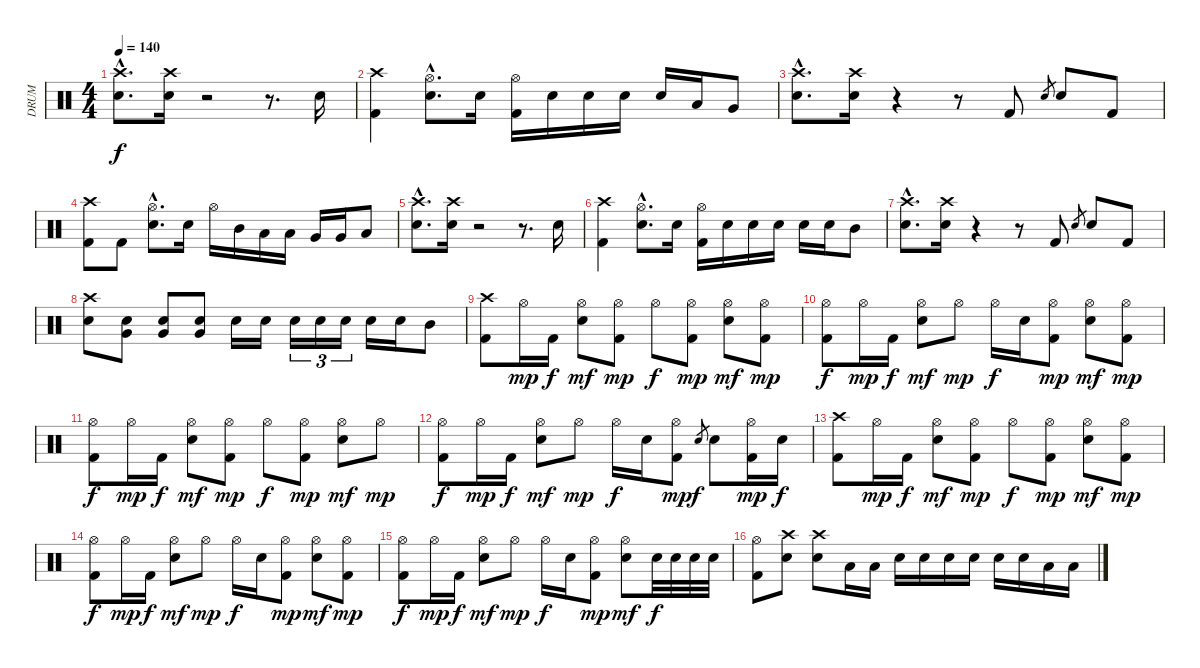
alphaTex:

\track ("DRUM" "DRUM") {instrument percussion}
\staff {score}
\articulation defaults
\ts (4 4)
\tempo 140
\clef neutral
\ks c
("Crash high (hit)"{hac} "Electric Snare (hit)"{hac}).8{d dy f} ("Crash high (hit)" "Electric Snare (hit)").16 r.2 r.8{d} "Electric Snare (hit)".16 |
("Crash high (hit)" "Kick (hit) 2").4 ("Hi-Hat (open)"{hac} "Electric Snare (hit)"{hac}).8{d} "Electric Snare (hit)".16 ("Hi-Hat (open)" "Kick (hit) 2").16 "Electric Snare (hit)".16 "Electric Snare (hit)".16 "Electric Snare (hit)".16 "Electric Snare (hit)".16 "Low Tom (hit)".16 "Very Low Tom (hit)".8 |
("Crash high (hit)"{hac} "Electric Snare (hit)"{hac}).8{d} ("Crash high (hit)" "Electric Snare (hit)").16 r.4 r.8 "Kick (hit) 2".8 "Electric Snare (hit)".8{gr} "Electric Snare (hit)".8 "Kick (hit) 2".8 |
("Crash high (hit)" "Kick (hit) 2").8 "Kick (hit) 2".8 ("Hi-Hat (open)"{hac} "Electric Snare (hit)"{hac}).8{d} "Electric Snare (hit)".16 "Hi-Hat (open)".16 "Mid Tom (hit)".16 "Low Tom (hit)".16 "Low Tom (hit)".16 "Very Low Tom (hit)".16 "Very Low Tom (hit)".16 "Low Floor Tom (hit)".8 |
("Crash high (hit)"{hac} "Electric Snare (hit)"{hac}).8{d} ("Crash high (hit)" "Electric Snare (hit)").16 r.2 r.8{d} "Electric Snare (hit)".16 |
("Crash high (hit)" "Kick (hit) 2").4 ("Hi-Hat (open)"{hac} "Electric Snare (hit)"{hac}).8{d} "Electric Snare (hit)".16 ("Hi-Hat (open)" "Kick (hit) 2").16 "Electric Snare (hit)".16 "Electric Snare (hit)".16 "Electric Snare (hit)".16 "Electric Snare (hit)".16 "Electric Snare (hit)".16 "Mid Tom (hit)".8 |
("Crash high (hit)"{hac} "Electric Snare (hit)"{hac}).8{d} ("Crash high (hit)" "Electric Snare (hit)").16 r.4 r.8 "Kick (hit) 2".8 "Electric Snare (hit)".8{gr} "Electric Snare (hit)".8 "Kick (hit) 2".8 |
("Crash high (hit)" "Electric Snare (hit)").8 ("Electric Snare (hit)" "Very Low Tom (hit)").8 ("Electric Snare (hit)" "Very Low Tom (hit)").8 ("Electric Snare (hit)" "Very Low Tom (hit)").8 "Electric Snare (hit)".16 "Electric Snare (hit)".16 "Electric Snare (hit)".16{tu (3 2)} "Electric Snare (hit)".16{tu (3 2)} "Electric Snare (hit)".16{tu (3 2)} "Electric Snare (hit)".16 "Electric Snare (hit)".16 "Mid Tom (hit)".8 |
("Crash high (hit)" "Kick (hit) 2").8 "Hi-Hat (open)".16{dy mp} "Kick (hit) 2".16{dy f} ("Hi-Hat (open)" "Electric Snare (hit)").8{dy mf} ("Hi-Hat (open)" "Kick (hit) 2").8{dy mp} "Hi-Hat (open)".8{dy f} ("Hi-Hat (open)" "Kick (hit) 2").8{dy mp} ("Hi-Hat (open)" "Electric Snare (hit)").8{dy mf} ("Hi-Hat (open)" "Kick (hit) 2").8{dy mp} |
("Hi-Hat (open)" "Kick (hit) 2").8{dy f} "Hi-Hat (open)".16{dy mp} "Kick (hit) 2".16{dy f} ("Hi-Hat (open)" "Electric Snare (hit)").8{dy mf} "Hi-Hat (open)".8{dy mp} "Hi-Hat (open)".16{dy f} "Electric Snare (hit)".16 ("Hi-Hat (open)" "Kick (hit) 2").8{dy mp} ("Hi-Hat (open)" "Electric Snare (hit)").8{dy mf} ("Hi-Hat (open)" "Kick (hit) 2").8{dy mp} |
("Hi-Hat (open)" "Kick (hit) 2").8{dy f} "Hi-Hat (open)".16{dy mp} "Kick (hit) 2".16{dy f} ("Hi-Hat (open)" "Electric Snare (hit)").8{dy mf} ("Hi-Hat (open)" "Kick (hit) 2").8{dy mp} "Hi-Hat (open)".8{dy f} ("Hi-Hat (open)" "Kick (hit) 2").8{dy mp} ("Hi-Hat (open)" "Electric Snare (hit)").8{dy mf} "Hi-Hat (open)".8{dy mp} |
("Hi-Hat (open)" "Kick (hit) 2").8{dy f} "Hi-Hat (open)".16{dy mp} "Kick (hit) 2".16{dy f} ("Hi-Hat (open)" "Electric Snare (hit)").8{dy mf} "Hi-Hat (open)".8{dy mp} "Hi-Hat (open)".16{dy f} "Electric Snare (hit)".16 ("Hi-Hat (open)" "Kick (hit) 2").8{dy mp} "Electric Snare (hit)".8{gr dy f} "Electric Snare (hit)".8 ("Hi-Hat (open)" "Kick (hit) 2").16{dy mp} "Electric Snare (hit)".16{dy f} |
("Crash high (hit)" "Kick (hit) 2").8 "Hi-Hat (open)".16{dy mp} "Kick (hit) 2".16{dy f} ("Hi-Hat (open)" "Electric Snare (hit)").8{dy mf} ("Hi-Hat (open)" "Kick (hit) 2").8{dy mp} "Hi-Hat (open)".8{dy f} ("Hi-Hat (open)" "Kick (hit) 2").8{dy mp} ("Hi-Hat (open)" "Electric Snare (hit)").8{dy mf} ("Hi-Hat (open)" "Kick (hit) 2").8{dy mp} |
("Hi-Hat (open)" "Kick (hit) 2").8{dy f} "Hi-Hat (open)".16{dy mp} "Kick (hit) 2".16{dy f} ("Hi-Hat (open)" "Electric Snare (hit)").8{dy mf} "Hi-Hat (open)".8{dy mp} "Hi-Hat (open)".16{dy f} "Electric Snare (hit)".16 ("Hi-Hat (open)" "Kick (hit) 2").8{dy mp} ("Hi-Hat (open)" "Electric Snare (hit)").8{dy mf} ("Hi-Hat (open)" "Kick (hit) 2").8{dy mp} |
("Hi-Hat (open)" "Kick (hit) 2").8{dy f} "Hi-Hat (open)".16{dy mp} "Kick (hit) 2".16{dy f} ("Hi-Hat (open)" "Electric Snare (hit)").8{dy mf} "Hi-Hat (open)".8{dy mp} "Hi-Hat (open)".16{dy f} "Electric Snare (hit)".16 ("Hi-Hat (open)" "Kick (hit) 2").8{dy mp} ("Hi-Hat (open)" "Electric Snare (hit)").8{dy mf} "Electric Snare (hit)".32{dy f} "Electric Snare (hit)".32 "Electric Snare (hit)".32 "Electric Snare (hit)".32 |
("Hi-Hat (open)" "Kick (hit) 2").8 ("Crash high (hit)" "Electric Snare (hit)").8 ("Crash high (hit)" "Electric Snare (hit)").8 "Low Tom (hit)".16 "Low Tom (hit)".16 "Electric Snare (hit)".16 "Electric Snare (hit)".16 "Electric Snare (hit)".16 "Electric Snare (hit)".16 "Electric Snare (hit)".16 "Electric Snare (hit)".16 "Low Tom (hit)".16 "Low Tom (hit)".16
